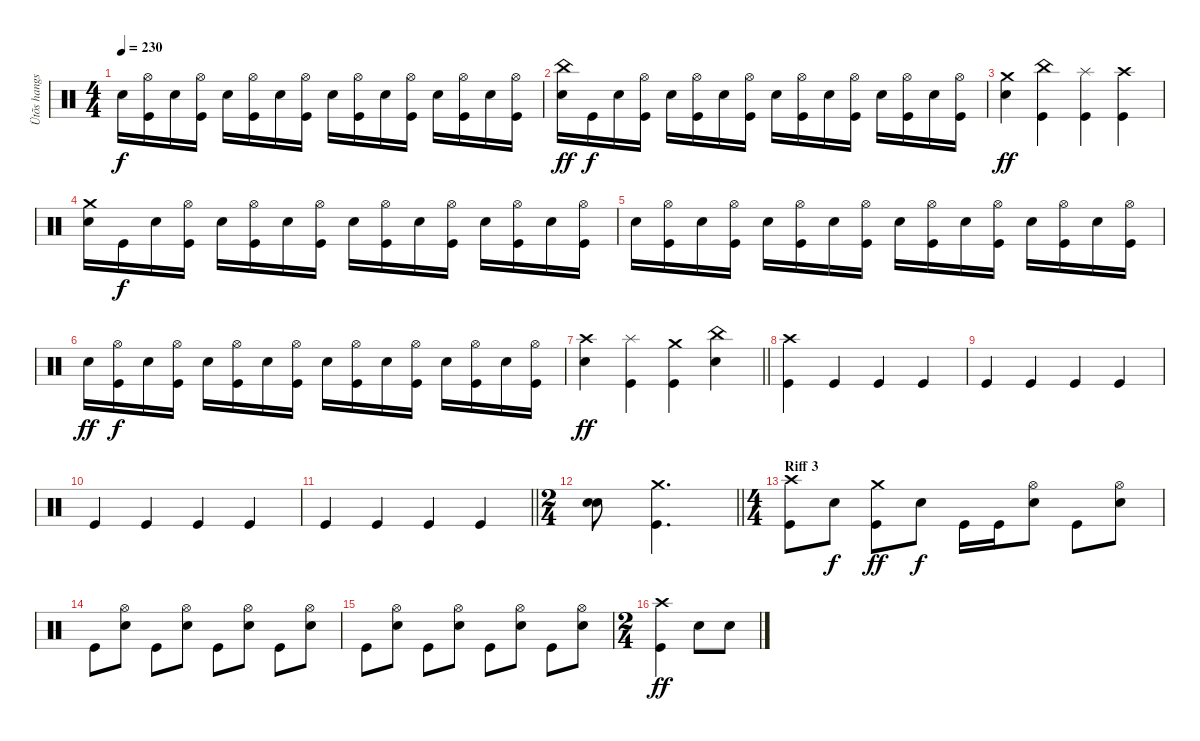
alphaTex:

\track ("Ütõs hangszer" "Ütõs hangs") {instrument percussion}
\staff {score}
\articulation defaults
\ts (4 4)
\tempo 230
\clef neutral
\ks c "Electric Snare (hit)".16{dy f}
("Hi-Hat (open)" "Kick (hit)").16 "Electric Snare (hit)".16 ("Hi-Hat (open)" "Kick (hit)").16 "Electric Snare (hit)".16 ("Hi-Hat (open)" "Kick (hit)").16 "Electric Snare (hit)".16 ("Hi-Hat (open)" "Kick (hit)").16 "Electric Snare (hit)".16 ("Hi-Hat (open)" "Kick (hit)").16 "Electric Snare (hit)".16 ("Hi-Hat (open)" "Kick (hit)").16 "Electric Snare (hit)".16 ("Hi-Hat (open)" "Kick (hit)").16 "Electric Snare (hit)".16 ("Hi-Hat (open)" "Kick (hit)").16 |
("China (hit)" "Electric Snare (hit)").16{dy ff} "Kick (hit)".16{dy f} "Electric Snare (hit)".16 ("Hi-Hat (open)" "Kick (hit)").16 "Electric Snare (hit)".16 ("Hi-Hat (open)" "Kick (hit)").16 "Electric Snare (hit)".16 ("Hi-Hat (open)" "Kick (hit)").16 "Electric Snare (hit)".16 ("Hi-Hat (open)" "Kick (hit)").16 "Electric Snare (hit)".16 ("Hi-Hat (open)" "Kick (hit)").16 "Electric Snare (hit)".16 ("Hi-Hat (open)" "Kick (hit)").16 "Electric Snare (hit)".16 ("Hi-Hat (open)" "Kick (hit)").16 |
("Crash medium (hit)" "Electric Snare (hit)").4{dy ff} ("China (hit)" "Kick (hit)").4 ("Splash (hit)" "Kick (hit)").4 ("Crash high (hit)" "Kick (hit)").4 |
("Crash medium (hit)" "Electric Snare (hit)").16 "Kick (hit)".16{dy f} "Electric Snare (hit)".16 ("Hi-Hat (open)" "Kick (hit)").16 "Electric Snare (hit)".16 ("Hi-Hat (open)" "Kick (hit)").16 "Electric Snare (hit)".16 ("Hi-Hat (open)" "Kick (hit)").16 "Electric Snare (hit)".16 ("Hi-Hat (open)" "Kick (hit)").16 "Electric Snare (hit)".16 ("Hi-Hat (open)" "Kick (hit)").16 "Electric Snare (hit)".16 ("Hi-Hat (open)" "Kick (hit)").16 "Electric Snare (hit)".16 ("Hi-Hat (open)" "Kick (hit)").16 |
"Electric Snare (hit)".16 ("Hi-Hat (open)" "Kick (hit)").16 "Electric Snare (hit)".16 ("Hi-Hat (open)" "Kick (hit)").16 "Electric Snare (hit)".16 ("Hi-Hat (open)" "Kick (hit)").16 "Electric Snare (hit)".16 ("Hi-Hat (open)" "Kick (hit)").16 "Electric Snare (hit)".16 ("Hi-Hat (open)" "Kick (hit)").16 "Electric Snare (hit)".16 ("Hi-Hat (open)" "Kick (hit)").16 "Electric Snare (hit)".16 ("Hi-Hat (open)" "Kick (hit)").16 "Electric Snare (hit)".16 ("Hi-Hat (open)" "Kick (hit)").16 |
"Electric Snare (hit)".16{dy ff} ("Hi-Hat (open)" "Kick (hit)").16{dy f} "Electric Snare (hit)".16 ("Hi-Hat (open)" "Kick (hit)").16 "Electric Snare (hit)".16 ("Hi-Hat (open)" "Kick (hit)").16 "Electric Snare (hit)".16 ("Hi-Hat (open)" "Kick (hit)").16 "Electric Snare (hit)".16 ("Hi-Hat (open)" "Kick (hit)").16 "Electric Snare (hit)".16 ("Hi-Hat (open)" "Kick (hit)").16 "Electric Snare (hit)".16 ("Hi-Hat (open)" "Kick (hit)").16 "Electric Snare (hit)".16 ("Hi-Hat (open)" "Kick (hit)").16 |
\barLineRight lightlight
("Crash high (hit)" "Electric Snare (hit)").4{dy ff} ("Splash (hit)" "Kick (hit)").4 ("Crash medium (hit)" "Kick (hit)").4 ("China (hit)" "Electric Snare (hit)").4 |
\section ("" "")
("Crash high (hit)" "Kick (hit)").4 "Kick (hit)".4 "Kick (hit)".4 "Kick (hit)".4 |
"Kick (hit)".4 "Kick (hit)".4 "Kick (hit)".4 "Kick (hit)".4 |
"Kick (hit)".4 "Kick (hit)".4 "Kick (hit)".4 "Kick (hit)".4 |
\barLineRight lightlight "Kick (hit)".4 "Kick (hit)".4 "Kick (hit)".4 "Kick (hit)".4
|
\ts (2 4)
\section ("" "")
\barLineRight lightlight
("Electric Snare (hit)" "Electric Snare (hit)").8{bu 240} ("Crash medium (hit)" "Kick (hit)").4{d} |
\ts (4 4)
\section ("" "Riff 3")
("Crash high (hit)" "Kick (hit)").8 "Electric Snare (hit)".8{dy f} ("Crash medium (hit)" "Kick (hit)").8{dy ff} "Electric Snare (hit)".8{dy f} "Kick (hit)".16 "Kick (hit)".16 ("Hi-Hat (open)" "Electric Snare (hit)").8 "Kick (hit)".8 ("Hi-Hat (open)" "Electric Snare (hit)").8 |
"Kick (hit)".8 ("Hi-Hat (open)" "Electric Snare (hit)").8 "Kick (hit)".8 ("Hi-Hat (open)" "Electric Snare (hit)").8 "Kick (hit)".8 ("Hi-Hat (open)" "Electric Snare (hit)").8 "Kick (hit)".8 ("Hi-Hat (open)" "Electric Snare (hit)").8 |
"Kick (hit)".8 ("Hi-Hat (open)" "Electric Snare (hit)").8 "Kick (hit)".8 ("Hi-Hat (open)" "Electric Snare (hit)").8 "Kick (hit)".8 ("Hi-Hat (open)" "Electric Snare (hit)").8 "Kick (hit)".8 ("Hi-Hat (open)" "Electric Snare (hit)").8 |
\ts (2 4)
("Crash high (hit)" "Kick (hit)").4{dy ff} "Electric Snare (hit)".8 "Electric Snare (hit)".8
